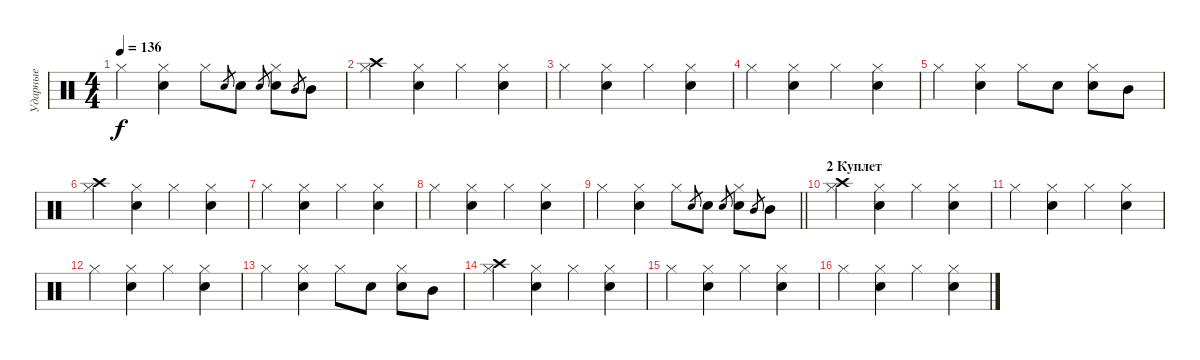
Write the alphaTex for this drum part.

\track ("Ударные" "Ударные") {instrument percussion}
\staff {score}
\articulation defaults
\ts (4 4)
\tempo 136
\clef neutral
\ks c "Hi-Hat (closed)".4{dy f}
("Hi-Hat (closed)" "Snare (hit) 2").4 "Hi-Hat (closed)".8 "Snare (hit) 2".8{gr} "Snare (hit) 2".8 "Snare (hit) 2".8{gr} ("Hi-Hat (closed)" "Snare (hit) 2").8 "Mid Tom (hit)".8{gr} "Mid Tom (hit)".8 |
("Hi-Hat (closed)" "Crash high (hit)").4 ("Hi-Hat (closed)" "Snare (hit) 2").4 "Hi-Hat (closed)".4 ("Hi-Hat (closed)" "Snare (hit) 2").4 |
"Hi-Hat (closed)".4 ("Hi-Hat (closed)" "Snare (hit) 2").4 "Hi-Hat (closed)".4 ("Hi-Hat (closed)" "Snare (hit) 2").4 |
"Hi-Hat (closed)".4 ("Hi-Hat (closed)" "Snare (hit) 2").4 "Hi-Hat (closed)".4 ("Hi-Hat (closed)" "Snare (hit) 2").4 |
"Hi-Hat (closed)".4 ("Hi-Hat (closed)" "Snare (hit) 2").4 "Hi-Hat (closed)".8 "Snare (hit) 2".8 ("Hi-Hat (closed)" "Snare (hit) 2").8 "Mid Tom (hit)".8 |
("Hi-Hat (closed)" "Crash high (hit)").4 ("Hi-Hat (closed)" "Snare (hit) 2").4 "Hi-Hat (closed)".4 ("Hi-Hat (closed)" "Snare (hit) 2").4 |
"Hi-Hat (closed)".4 ("Hi-Hat (closed)" "Snare (hit) 2").4 "Hi-Hat (closed)".4 ("Hi-Hat (closed)" "Snare (hit) 2").4 |
"Hi-Hat (closed)".4 ("Hi-Hat (closed)" "Snare (hit) 2").4 "Hi-Hat (closed)".4 ("Hi-Hat (closed)" "Snare (hit) 2").4 |
\barLineRight lightlight "Hi-Hat (closed)".4
("Hi-Hat (closed)" "Snare (hit) 2").4 "Hi-Hat (closed)".8 "Snare (hit) 2".8{gr} "Snare (hit) 2".8 "Snare (hit) 2".8{gr} ("Hi-Hat (closed)" "Snare (hit) 2").8 "Mid Tom (hit)".8{gr} "Mid Tom (hit)".8 |
\section ("" "2 Куплет")
("Hi-Hat (closed)" "Crash high (hit)").4 ("Hi-Hat (closed)" "Snare (hit) 2").4 "Hi-Hat (closed)".4 ("Hi-Hat (closed)" "Snare (hit) 2").4 |
"Hi-Hat (closed)".4 ("Hi-Hat (closed)" "Snare (hit) 2").4 "Hi-Hat (closed)".4 ("Hi-Hat (closed)" "Snare (hit) 2").4 |
"Hi-Hat (closed)".4 ("Hi-Hat (closed)" "Snare (hit) 2").4 "Hi-Hat (closed)".4 ("Hi-Hat (closed)" "Snare (hit) 2").4 |
"Hi-Hat (closed)".4 ("Hi-Hat (closed)" "Snare (hit) 2").4 "Hi-Hat (closed)".8 "Snare (hit) 2".8 ("Hi-Hat (closed)" "Snare (hit) 2").8 "Mid Tom (hit)".8 |
("Hi-Hat (closed)" "Crash high (hit)").4 ("Hi-Hat (closed)" "Snare (hit) 2").4 "Hi-Hat (closed)".4 ("Hi-Hat (closed)" "Snare (hit) 2").4 |
"Hi-Hat (closed)".4 ("Hi-Hat (closed)" "Snare (hit) 2").4 "Hi-Hat (closed)".4 ("Hi-Hat (closed)" "Snare (hit) 2").4 |
"Hi-Hat (closed)".4 ("Hi-Hat (closed)" "Snare (hit) 2").4 "Hi-Hat (closed)".4 ("Hi-Hat (closed)" "Snare (hit) 2").4
